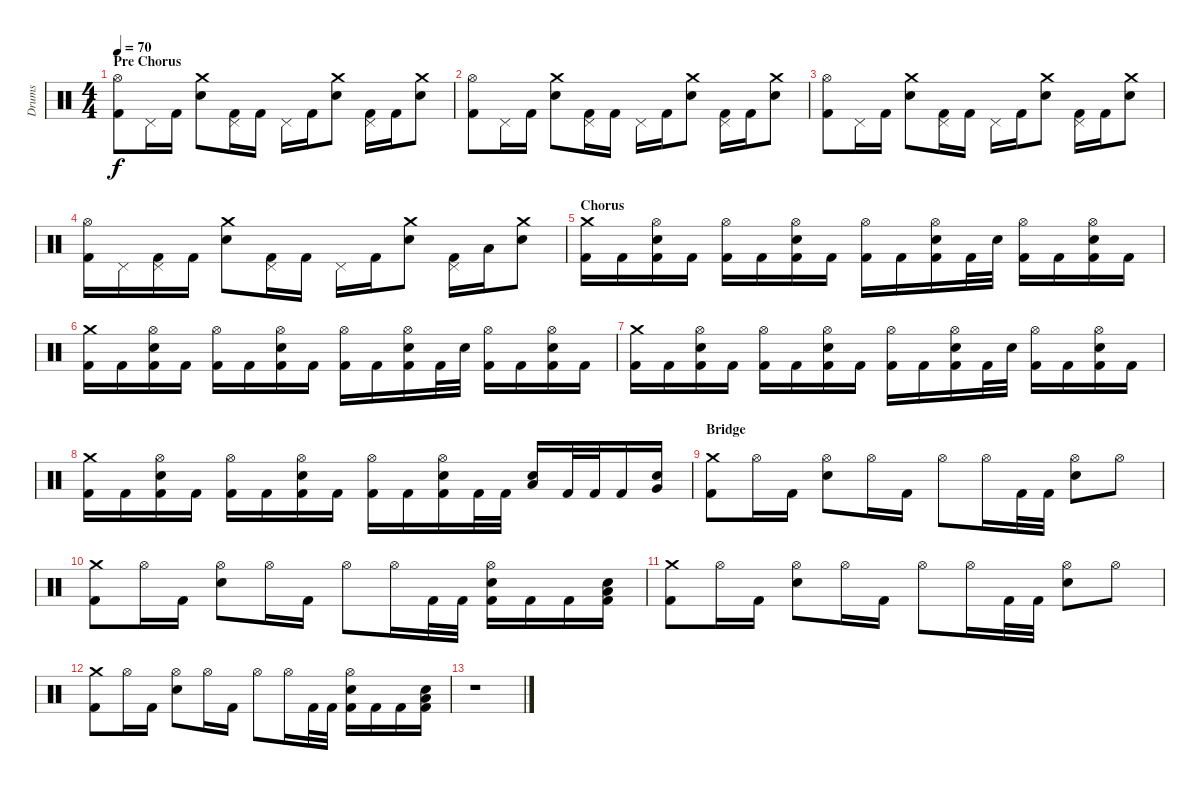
\track ("Drums" "Drums") {instrument percussion}
\staff {score}
\articulation defaults
\ts (4 4)
\section ("" "Pre Chorus")
\tempo 70
\clef neutral
\ks c
("Hi-Hat (open)" "Kick (hit) 2").8{dy f} "Pedal Hi-Hat (hit)".16 "Kick (hit) 2".16 ("Crash medium (hit)" "Electric Snare (hit)").8 ("Pedal Hi-Hat (hit)" "Kick (hit) 2").16 "Kick (hit) 2".16 "Pedal Hi-Hat (hit)".16 "Kick (hit) 2".16 ("Crash medium (hit)" "Electric Snare (hit)").8 ("Pedal Hi-Hat (hit)" "Kick (hit) 2").16 "Kick (hit) 2".16 ("Crash medium (hit)" "Electric Snare (hit)").8 |
("Hi-Hat (open)" "Kick (hit) 2").8 "Pedal Hi-Hat (hit)".16 "Kick (hit) 2".16 ("Crash medium (hit)" "Electric Snare (hit)").8 ("Pedal Hi-Hat (hit)" "Kick (hit) 2").16 "Kick (hit) 2".16 "Pedal Hi-Hat (hit)".16 "Kick (hit) 2".16 ("Crash medium (hit)" "Electric Snare (hit)").8 ("Pedal Hi-Hat (hit)" "Kick (hit) 2").16 "Kick (hit) 2".16 ("Crash medium (hit)" "Electric Snare (hit)").8 |
("Hi-Hat (open)" "Kick (hit) 2").8 "Pedal Hi-Hat (hit)".16 "Kick (hit) 2".16 ("Crash medium (hit)" "Electric Snare (hit)").8 ("Pedal Hi-Hat (hit)" "Kick (hit) 2").16 "Kick (hit) 2".16 "Pedal Hi-Hat (hit)".16 "Kick (hit) 2".16 ("Crash medium (hit)" "Electric Snare (hit)").8 ("Pedal Hi-Hat (hit)" "Kick (hit) 2").16 "Kick (hit) 2".16 ("Crash medium (hit)" "Electric Snare (hit)").8 |
("Hi-Hat (open)" "Kick (hit) 2").16 "Pedal Hi-Hat (hit)".16 ("Pedal Hi-Hat (hit)" "Kick (hit) 2").16 "Kick (hit) 2".16 ("Crash medium (hit)" "Electric Snare (hit)").8 ("Pedal Hi-Hat (hit)" "Kick (hit) 2").16 "Kick (hit) 2".16 "Pedal Hi-Hat (hit)".16 "Kick (hit) 2".16 ("Crash medium (hit)" "Electric Snare (hit)").8 ("Pedal Hi-Hat (hit)" "Kick (hit) 2").16 "Low Tom (hit)".16 ("Crash medium (hit)" "Electric Snare (hit)").8 |
\section ("" "Chorus")
("Crash medium (hit)" "Kick (hit) 2").16 "Kick (hit) 2".16 ("Hi-Hat (open)" "Electric Snare (hit)" "Kick (hit) 2").16 "Kick (hit) 2".16 ("Hi-Hat (open)" "Kick (hit) 2").16 "Kick (hit) 2".16 ("Hi-Hat (open)" "Electric Snare (hit)" "Kick (hit) 2").16 "Kick (hit) 2".16 ("Hi-Hat (open)" "Kick (hit) 2").16 "Kick (hit) 2".16 ("Hi-Hat (open)" "Electric Snare (hit)" "Kick (hit) 2").16 "Kick (hit) 2".32 "Electric Snare (hit)".32 ("Hi-Hat (open)" "Kick (hit) 2").16 "Kick (hit) 2".16 ("Hi-Hat (open)" "Electric Snare (hit)" "Kick (hit) 2").16 "Kick (hit) 2".16 |
("Crash medium (hit)" "Kick (hit) 2").16 "Kick (hit) 2".16 ("Hi-Hat (open)" "Electric Snare (hit)" "Kick (hit) 2").16 "Kick (hit) 2".16 ("Hi-Hat (open)" "Kick (hit) 2").16 "Kick (hit) 2".16 ("Hi-Hat (open)" "Electric Snare (hit)" "Kick (hit) 2").16 "Kick (hit) 2".16 ("Hi-Hat (open)" "Kick (hit) 2").16 "Kick (hit) 2".16 ("Hi-Hat (open)" "Electric Snare (hit)" "Kick (hit) 2").16 "Kick (hit) 2".32 "Electric Snare (hit)".32 ("Hi-Hat (open)" "Kick (hit) 2").16 "Kick (hit) 2".16 ("Hi-Hat (open)" "Electric Snare (hit)" "Kick (hit) 2").16 "Kick (hit) 2".16 |
("Crash medium (hit)" "Kick (hit) 2").16 "Kick (hit) 2".16 ("Hi-Hat (open)" "Electric Snare (hit)" "Kick (hit) 2").16 "Kick (hit) 2".16 ("Hi-Hat (open)" "Kick (hit) 2").16 "Kick (hit) 2".16 ("Hi-Hat (open)" "Electric Snare (hit)" "Kick (hit) 2").16 "Kick (hit) 2".16 ("Hi-Hat (open)" "Kick (hit) 2").16 "Kick (hit) 2".16 ("Hi-Hat (open)" "Electric Snare (hit)" "Kick (hit) 2").16 "Kick (hit) 2".32 "Electric Snare (hit)".32 ("Hi-Hat (open)" "Kick (hit) 2").16 "Kick (hit) 2".16 ("Hi-Hat (open)" "Electric Snare (hit)" "Kick (hit) 2").16 "Kick (hit) 2".16 |
("Crash medium (hit)" "Kick (hit) 2").16 "Kick (hit) 2".16 ("Hi-Hat (open)" "Electric Snare (hit)" "Kick (hit) 2").16 "Kick (hit) 2".16 ("Hi-Hat (open)" "Kick (hit) 2").16 "Kick (hit) 2".16 ("Hi-Hat (open)" "Electric Snare (hit)" "Kick (hit) 2").16 "Kick (hit) 2".16 ("Hi-Hat (open)" "Kick (hit) 2").16 "Kick (hit) 2".16 ("Hi-Hat (open)" "Electric Snare (hit)" "Kick (hit) 2").16 "Kick (hit) 2".32 "Kick (hit) 2".32 ("Electric Snare (hit)" "Low Tom (hit)").16 "Kick (hit) 2".32 "Kick (hit) 2".32 "Kick (hit) 2".16 ("Electric Snare (hit)" "Very Low Tom (hit)").16 |
\section ("" "Bridge")
("Crash medium (hit)" "Kick (hit) 2").8 "Hi-Hat (open)".16 "Kick (hit) 2".16 ("Hi-Hat (open)" "Electric Snare (hit)").8 "Hi-Hat (open)".16 "Kick (hit) 2".16 "Hi-Hat (open)".8 "Hi-Hat (open)".16 "Kick (hit) 2".32 "Kick (hit) 2".32 ("Hi-Hat (open)" "Electric Snare (hit)").8 "Hi-Hat (open)".8 |
("Crash medium (hit)" "Kick (hit) 2").8 "Hi-Hat (open)".16 "Kick (hit) 2".16 ("Hi-Hat (open)" "Electric Snare (hit)").8 "Hi-Hat (open)".16 "Kick (hit) 2".16 "Hi-Hat (open)".8 "Hi-Hat (open)".16 "Kick (hit) 2".32 "Kick (hit) 2".32 ("Hi-Hat (open)" "Electric Snare (hit)" "Kick (hit) 2").16 "Kick (hit) 2".16 "Kick (hit) 2".16 ("Electric Snare (hit)" "Low Tom (hit)" "Kick (hit) 2").16 |
("Crash medium (hit)" "Kick (hit) 2").8 "Hi-Hat (open)".16 "Kick (hit) 2".16 ("Hi-Hat (open)" "Electric Snare (hit)").8 "Hi-Hat (open)".16 "Kick (hit) 2".16 "Hi-Hat (open)".8 "Hi-Hat (open)".16 "Kick (hit) 2".32 "Kick (hit) 2".32 ("Hi-Hat (open)" "Electric Snare (hit)").8 "Hi-Hat (open)".8 |
("Crash medium (hit)" "Kick (hit) 2").8 "Hi-Hat (open)".16 "Kick (hit) 2".16 ("Hi-Hat (open)" "Electric Snare (hit)").8 "Hi-Hat (open)".16 "Kick (hit) 2".16 "Hi-Hat (open)".8 "Hi-Hat (open)".16 "Kick (hit) 2".32 "Kick (hit) 2".32 ("Hi-Hat (open)" "Electric Snare (hit)" "Kick (hit) 2").16 "Kick (hit) 2".16 "Kick (hit) 2".16 ("Electric Snare (hit)" "Low Tom (hit)" "Kick (hit) 2").16 |
r.1
